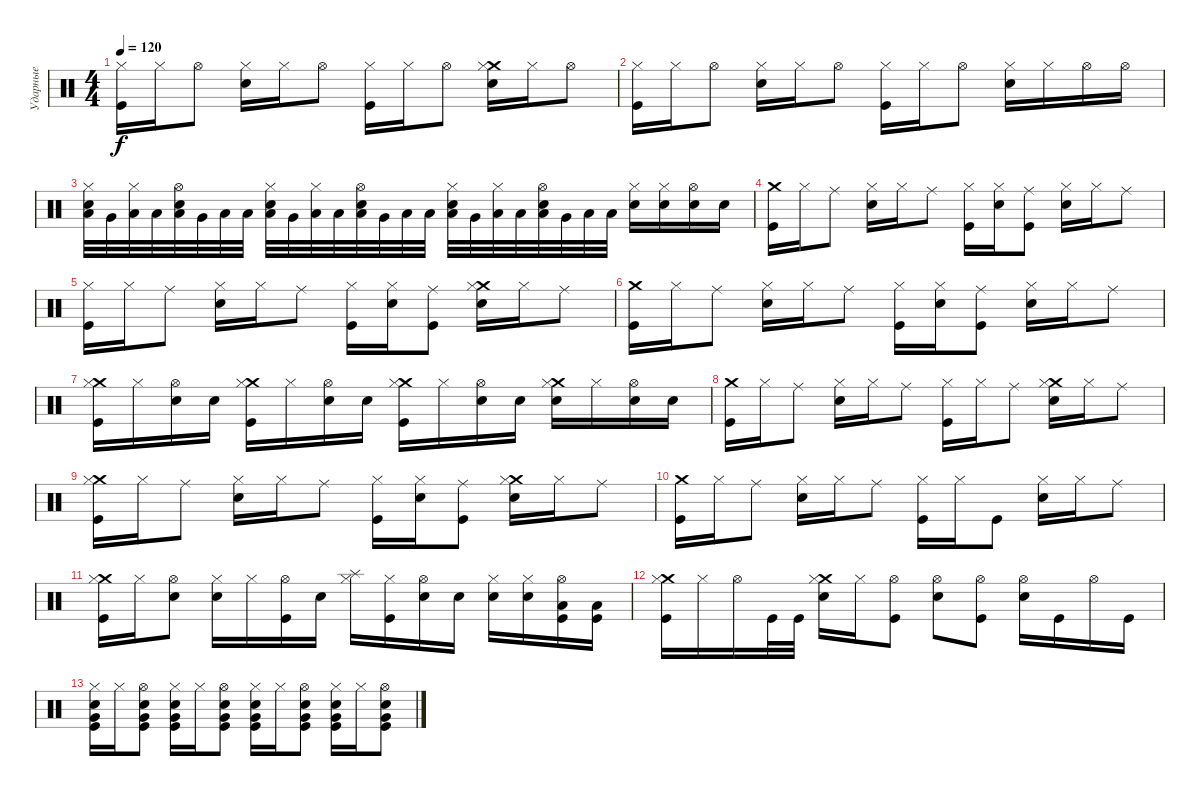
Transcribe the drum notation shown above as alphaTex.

\track ("Ударные" "Ударные") {instrument percussion}
\staff {score}
\articulation defaults
\ts (4 4)
\tempo 120
\clef neutral
\ks c
("Hi-Hat (closed)" "Kick (hit)").16{dy f} "Hi-Hat (closed)".16 "Hi-Hat (open)".8 ("Hi-Hat (closed)" "Snare (hit) 2").16 "Hi-Hat (closed)".16 "Hi-Hat (open)".8 ("Hi-Hat (closed)" "Kick (hit)").16 "Hi-Hat (closed)".16 "Hi-Hat (open)".8 ("Crash medium (hit)" "Hi-Hat (closed)" "Snare (hit) 2").16 "Hi-Hat (closed)".16 "Hi-Hat (open)".8 |
("Hi-Hat (closed)" "Kick (hit)").16 "Hi-Hat (closed)".16 "Hi-Hat (open)".8 ("Hi-Hat (closed)" "Snare (hit) 2").16 "Hi-Hat (closed)".16 "Hi-Hat (open)".8 ("Hi-Hat (closed)" "Kick (hit)").16 "Hi-Hat (closed)".16 "Hi-Hat (open)".8 ("Hi-Hat (closed)" "Snare (hit) 2").16 "Hi-Hat (closed)".16 "Hi-Hat (open)".16 "Hi-Hat (open)".16 |
("Low Tom (hit)" "Snare (hit) 2" "Hi-Hat (closed)").32 "Very Low Tom (hit)".32 ("Low Floor Tom (hit)" "Hi-Hat (closed)").32 "Low Floor Tom (hit)".32 ("Snare (hit) 2" "Hi-Hat (open)" "Low Tom (hit)").32 "Very Low Tom (hit)".32 "Low Floor Tom (hit)".32 "Low Floor Tom (hit)".32 ("Snare (hit) 2" "Hi-Hat (closed)" "Low Tom (hit)").32 "Very Low Tom (hit)".32 ("Hi-Hat (closed)" "Low Floor Tom (hit)").32 "Low Floor Tom (hit)".32 ("Snare (hit) 2" "Hi-Hat (open)" "Low Tom (hit)").32 "Very Low Tom (hit)".32 "Low Floor Tom (hit)".32 "Low Floor Tom (hit)".32 ("Snare (hit) 2" "Hi-Hat (closed)" "Low Tom (hit)").32 "Very Low Tom (hit)".32 ("Hi-Hat (closed)" "Low Floor Tom (hit)").32 "Low Floor Tom (hit)".32 ("Snare (hit) 2" "Hi-Hat (open)" "Low Tom (hit)").32 "Very Low Tom (hit)".32 "Low Floor Tom (hit)".32 "Low Floor Tom (hit)".32 ("Hi-Hat (closed)" "Snare (hit) 2").16 ("Hi-Hat (closed)" "Snare (hit) 2").16 ("Hi-Hat (open)" "Snare (hit) 2").16 "Snare (hit) 2".16 |
("Crash medium (hit)" "Kick (hit)").16 "Hi-Hat (closed)".16 "Ride (middle)".8 ("Hi-Hat (closed)" "Snare (hit) 2").16 "Hi-Hat (closed)".16 "Ride (middle)".8 ("Hi-Hat (closed)" "Kick (hit)").16 ("Hi-Hat (closed)" "Snare (hit) 2").16 ("Ride (middle)" "Kick (hit)").8 ("Hi-Hat (closed)" "Snare (hit) 2").16 "Hi-Hat (closed)".16 "Ride (middle)".8 |
("Hi-Hat (closed)" "Kick (hit)").16 "Hi-Hat (closed)".16 "Ride (middle)".8 ("Hi-Hat (closed)" "Snare (hit) 2").16 "Hi-Hat (closed)".16 "Ride (middle)".8 ("Hi-Hat (closed)" "Kick (hit)").16 ("Hi-Hat (closed)" "Snare (hit) 2").16 ("Ride (middle)" "Kick (hit)").8 ("Crash medium (hit)" "Hi-Hat (closed)" "Snare (hit) 2").16 "Hi-Hat (closed)".16 "Ride (middle)".8 |
("Crash medium (hit)" "Kick (hit)").16 "Hi-Hat (closed)".16 "Ride (middle)".8 ("Hi-Hat (closed)" "Snare (hit) 2").16 "Hi-Hat (closed)".16 "Ride (middle)".8 ("Hi-Hat (closed)" "Kick (hit)").16 ("Hi-Hat (closed)" "Snare (hit) 2").16 ("Ride (middle)" "Kick (hit)").8 ("Hi-Hat (closed)" "Snare (hit) 2").16 "Hi-Hat (closed)".16 "Ride (middle)".8 |
("Crash medium (hit)" "Hi-Hat (closed)" "Kick (hit)").16 "Hi-Hat (closed)".16 ("Snare (hit) 2" "Hi-Hat (open)").16 "Snare (hit) 2".16 ("Crash medium (hit)" "Hi-Hat (closed)" "Kick (hit)").16 "Hi-Hat (closed)".16 ("Hi-Hat (open)" "Snare (hit) 2").16 "Snare (hit) 2".16 ("Crash medium (hit)" "Kick (hit)" "Hi-Hat (closed)").16 "Hi-Hat (closed)".16 ("Snare (hit) 2" "Hi-Hat (open)").16 "Snare (hit) 2".16 ("Crash medium (hit)" "Hi-Hat (closed)" "Snare (hit) 2").16 "Hi-Hat (closed)".16 ("Snare (hit) 2" "Hi-Hat (open)").16 "Snare (hit) 2".16 |
("Crash medium (hit)" "Kick (hit)").16 "Hi-Hat (closed)".16 "Ride (middle)".8 ("Hi-Hat (closed)" "Snare (hit) 2").16 "Hi-Hat (closed)".16 "Ride (middle)".8 ("Hi-Hat (closed)" "Kick (hit)").16 "Hi-Hat (closed)".16 "Ride (middle)".8 ("Crash medium (hit)" "Hi-Hat (closed)" "Snare (hit) 2").16 "Hi-Hat (closed)".16 "Ride (middle)".8 |
("Crash medium (hit)" "Hi-Hat (closed)" "Kick (hit)").16 "Hi-Hat (closed)".16 "Ride (middle)".8 ("Hi-Hat (closed)" "Snare (hit) 2").16 "Hi-Hat (closed)".16 "Ride (middle)".8 ("Hi-Hat (closed)" "Kick (hit)").16 ("Hi-Hat (closed)" "Snare (hit) 2").16 ("Ride (middle)" "Kick (hit)").8 ("Crash medium (hit)" "Hi-Hat (closed)" "Snare (hit) 2").16 "Hi-Hat (closed)".16 "Ride (middle)".8 |
("Crash medium (hit)" "Kick (hit)").16 "Hi-Hat (closed)".16 "Ride (middle)".8 ("Hi-Hat (closed)" "Snare (hit) 2").16 "Hi-Hat (closed)".16 "Ride (middle)".8 ("Hi-Hat (closed)" "Kick (hit)").16 "Hi-Hat (closed)".16 "Kick (hit)".8 ("Hi-Hat (closed)" "Snare (hit) 2").16 "Hi-Hat (closed)".16 "Ride (middle)".8 |
("Crash medium (hit)" "Kick (hit)" "Hi-Hat (closed)").16 "Hi-Hat (closed)".16 ("Snare (hit) 2" "Hi-Hat (open)").8 ("Snare (hit) 2" "Hi-Hat (closed)").16 "Hi-Hat (closed)".16 ("Kick (hit)" "Hi-Hat (open)").16 "Snare (hit) 2".16 ("Splash (hit)" "Hi-Hat (closed)").16 ("Kick (hit)" "Hi-Hat (closed)").16 ("Snare (hit) 2" "Hi-Hat (open)").16 "Snare (hit) 2".16 ("Snare (hit) 2" "Hi-Hat (closed)").16 ("Snare (hit) 2" "Hi-Hat (closed)").16 ("Kick (hit)" "Low Floor Tom (hit)" "Hi-Hat (open)").16 ("Kick (hit)" "Low Floor Tom (hit)").16 |
("Kick (hit)" "Crash medium (hit)" "Hi-Hat (closed)").16 "Hi-Hat (closed)".16 "Hi-Hat (open)".16 "Kick (hit)".32 "Kick (hit)".32 ("Crash medium (hit)" "Snare (hit) 2" "Hi-Hat (closed)").16 "Hi-Hat (closed)".16 ("Kick (hit)" "Hi-Hat (open)").8 ("Snare (hit) 2" "Hi-Hat (open)").8 ("Kick (hit)" "Hi-Hat (open)").8 ("Snare (hit) 2" "Hi-Hat (open)").16 "Kick (hit)".16 "Hi-Hat (open)".16 "Kick (hit)".16 |
("Very Low Tom (hit)" "Hi-Hat (closed)" "Snare (hit) 2" "Kick (hit)").16 "Hi-Hat (closed)".16 ("Snare (hit) 2" "Kick (hit)" "Very Low Tom (hit)" "Hi-Hat (open)").8 ("Snare (hit) 2" "Kick (hit)" "Very Low Tom (hit)" "Hi-Hat (closed)").16 "Hi-Hat (closed)".16 ("Snare (hit) 2" "Kick (hit)" "Very Low Tom (hit)" "Hi-Hat (open)").8 ("Snare (hit) 2" "Kick (hit)" "Very Low Tom (hit)" "Hi-Hat (closed)").16 "Hi-Hat (closed)".16 ("Snare (hit) 2" "Kick (hit)" "Very Low Tom (hit)" "Hi-Hat (open)").8 ("Snare (hit) 2" "Kick (hit)" "Very Low Tom (hit)" "Hi-Hat (closed)").16 "Hi-Hat (closed)".16 ("Snare (hit) 2" "Kick (hit)" "Very Low Tom (hit)" "Hi-Hat (open)").8
